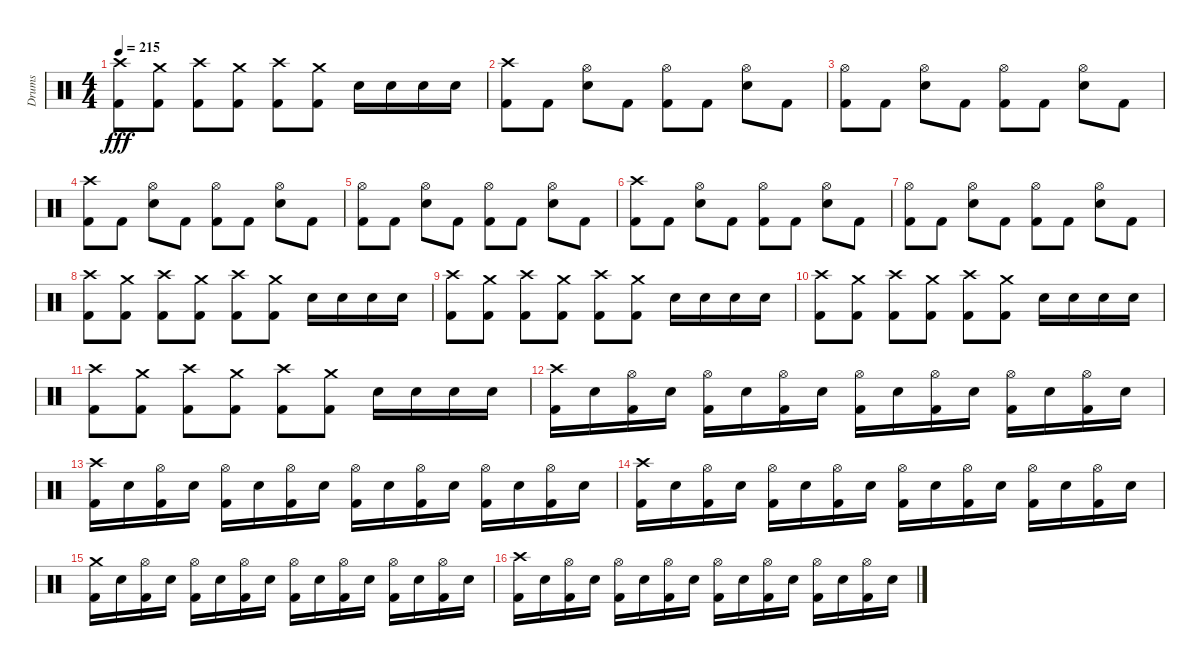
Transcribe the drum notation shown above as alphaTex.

\track ("Drums" "Drums") {instrument percussion}
\staff {score}
\articulation defaults
\ts (4 4)
\tempo 215
\clef neutral
\ks c
("Crash high (hit)" "Kick (hit) 2").8{dy fff} ("Crash medium (hit)" "Kick (hit) 2").8 ("Crash high (hit)" "Kick (hit) 2").8 ("Crash medium (hit)" "Kick (hit) 2").8 ("Crash high (hit)" "Kick (hit) 2").8 ("Crash medium (hit)" "Kick (hit) 2").8 "Electric Snare (hit)".16 "Electric Snare (hit)".16 "Electric Snare (hit)".16 "Electric Snare (hit)".16 |
("Crash high (hit)" "Kick (hit) 2").8 "Kick (hit) 2".8 ("Hi-Hat (open)" "Electric Snare (hit)").8 "Kick (hit) 2".8 ("Hi-Hat (open)" "Kick (hit) 2").8 "Kick (hit) 2".8 ("Hi-Hat (open)" "Electric Snare (hit)").8 "Kick (hit) 2".8 |
("Hi-Hat (open)" "Kick (hit) 2").8 "Kick (hit) 2".8 ("Hi-Hat (open)" "Electric Snare (hit)").8 "Kick (hit) 2".8 ("Hi-Hat (open)" "Kick (hit) 2").8 "Kick (hit) 2".8 ("Hi-Hat (open)" "Electric Snare (hit)").8 "Kick (hit) 2".8 |
("Crash high (hit)" "Kick (hit) 2").8 "Kick (hit) 2".8 ("Hi-Hat (open)" "Electric Snare (hit)").8 "Kick (hit) 2".8 ("Hi-Hat (open)" "Kick (hit) 2").8 "Kick (hit) 2".8 ("Hi-Hat (open)" "Electric Snare (hit)").8 "Kick (hit) 2".8 |
("Hi-Hat (open)" "Kick (hit) 2").8 "Kick (hit) 2".8 ("Hi-Hat (open)" "Electric Snare (hit)").8 "Kick (hit) 2".8 ("Hi-Hat (open)" "Kick (hit) 2").8 "Kick (hit) 2".8 ("Hi-Hat (open)" "Electric Snare (hit)").8 "Kick (hit) 2".8 |
("Crash high (hit)" "Kick (hit) 2").8 "Kick (hit) 2".8 ("Hi-Hat (open)" "Electric Snare (hit)").8 "Kick (hit) 2".8 ("Hi-Hat (open)" "Kick (hit) 2").8 "Kick (hit) 2".8 ("Hi-Hat (open)" "Electric Snare (hit)").8 "Kick (hit) 2".8 |
("Hi-Hat (open)" "Kick (hit) 2").8 "Kick (hit) 2".8 ("Hi-Hat (open)" "Electric Snare (hit)").8 "Kick (hit) 2".8 ("Hi-Hat (open)" "Kick (hit) 2").8 "Kick (hit) 2".8 ("Hi-Hat (open)" "Electric Snare (hit)").8 "Kick (hit) 2".8 |
("Crash high (hit)" "Kick (hit) 2").8 ("Crash medium (hit)" "Kick (hit) 2").8 ("Crash high (hit)" "Kick (hit) 2").8 ("Crash medium (hit)" "Kick (hit) 2").8 ("Crash high (hit)" "Kick (hit) 2").8 ("Crash medium (hit)" "Kick (hit) 2").8 "Electric Snare (hit)".16 "Electric Snare (hit)".16 "Electric Snare (hit)".16 "Electric Snare (hit)".16 |
("Crash high (hit)" "Kick (hit) 2").8 ("Crash medium (hit)" "Kick (hit) 2").8 ("Crash high (hit)" "Kick (hit) 2").8 ("Crash medium (hit)" "Kick (hit) 2").8 ("Crash high (hit)" "Kick (hit) 2").8 ("Crash medium (hit)" "Kick (hit) 2").8 "Electric Snare (hit)".16 "Electric Snare (hit)".16 "Electric Snare (hit)".16 "Electric Snare (hit)".16 |
("Crash high (hit)" "Kick (hit) 2").8 ("Crash medium (hit)" "Kick (hit) 2").8 ("Crash high (hit)" "Kick (hit) 2").8 ("Crash medium (hit)" "Kick (hit) 2").8 ("Crash high (hit)" "Kick (hit) 2").8 ("Crash medium (hit)" "Kick (hit) 2").8 "Electric Snare (hit)".16 "Electric Snare (hit)".16 "Electric Snare (hit)".16 "Electric Snare (hit)".16 |
("Crash high (hit)" "Kick (hit) 2").8 ("Crash medium (hit)" "Kick (hit) 2").8 ("Crash high (hit)" "Kick (hit) 2").8 ("Crash medium (hit)" "Kick (hit) 2").8 ("Crash high (hit)" "Kick (hit) 2").8 ("Crash medium (hit)" "Kick (hit) 2").8 "Electric Snare (hit)".16 "Electric Snare (hit)".16 "Electric Snare (hit)".16 "Electric Snare (hit)".16 |
("Crash high (hit)" "Kick (hit) 2").16 "Electric Snare (hit)".16 ("Hi-Hat (open)" "Kick (hit) 2").16 "Electric Snare (hit)".16 ("Hi-Hat (open)" "Kick (hit) 2").16 "Electric Snare (hit)".16 ("Hi-Hat (open)" "Kick (hit) 2").16 "Electric Snare (hit)".16 ("Hi-Hat (open)" "Kick (hit) 2").16 "Electric Snare (hit)".16 ("Hi-Hat (open)" "Kick (hit) 2").16 "Electric Snare (hit)".16 ("Hi-Hat (open)" "Kick (hit) 2").16 "Electric Snare (hit)".16 ("Hi-Hat (open)" "Kick (hit) 2").16 "Electric Snare (hit)".16 |
("Crash high (hit)" "Kick (hit) 2").16 "Electric Snare (hit)".16 ("Hi-Hat (open)" "Kick (hit) 2").16 "Electric Snare (hit)".16 ("Hi-Hat (open)" "Kick (hit) 2").16 "Electric Snare (hit)".16 ("Hi-Hat (open)" "Kick (hit) 2").16 "Electric Snare (hit)".16 ("Hi-Hat (open)" "Kick (hit) 2").16 "Electric Snare (hit)".16 ("Hi-Hat (open)" "Kick (hit) 2").16 "Electric Snare (hit)".16 ("Hi-Hat (open)" "Kick (hit) 2").16 "Electric Snare (hit)".16 ("Hi-Hat (open)" "Kick (hit) 2").16 "Electric Snare (hit)".16 |
("Crash high (hit)" "Kick (hit) 2").16 "Electric Snare (hit)".16 ("Hi-Hat (open)" "Kick (hit) 2").16 "Electric Snare (hit)".16 ("Hi-Hat (open)" "Kick (hit) 2").16 "Electric Snare (hit)".16 ("Hi-Hat (open)" "Kick (hit) 2").16 "Electric Snare (hit)".16 ("Hi-Hat (open)" "Kick (hit) 2").16 "Electric Snare (hit)".16 ("Hi-Hat (open)" "Kick (hit) 2").16 "Electric Snare (hit)".16 ("Hi-Hat (open)" "Kick (hit) 2").16 "Electric Snare (hit)".16 ("Hi-Hat (open)" "Kick (hit) 2").16 "Electric Snare (hit)".16 |
("Crash medium (hit)" "Kick (hit) 2").16 "Electric Snare (hit)".16 ("Hi-Hat (open)" "Kick (hit) 2").16 "Electric Snare (hit)".16 ("Hi-Hat (open)" "Kick (hit) 2").16 "Electric Snare (hit)".16 ("Hi-Hat (open)" "Kick (hit) 2").16 "Electric Snare (hit)".16 ("Hi-Hat (open)" "Kick (hit) 2").16 "Electric Snare (hit)".16 ("Hi-Hat (open)" "Kick (hit) 2").16 "Electric Snare (hit)".16 ("Hi-Hat (open)" "Kick (hit) 2").16 "Electric Snare (hit)".16 ("Hi-Hat (open)" "Kick (hit) 2").16 "Electric Snare (hit)".16 |
("Crash high (hit)" "Kick (hit) 2").16 "Electric Snare (hit)".16 ("Hi-Hat (open)" "Kick (hit) 2").16 "Electric Snare (hit)".16 ("Hi-Hat (open)" "Kick (hit) 2").16 "Electric Snare (hit)".16 ("Hi-Hat (open)" "Kick (hit) 2").16 "Electric Snare (hit)".16 ("Hi-Hat (open)" "Kick (hit) 2").16 "Electric Snare (hit)".16 ("Hi-Hat (open)" "Kick (hit) 2").16 "Electric Snare (hit)".16 ("Hi-Hat (open)" "Kick (hit) 2").16 "Electric Snare (hit)".16 ("Hi-Hat (open)" "Kick (hit) 2").16 "Electric Snare (hit)".16
